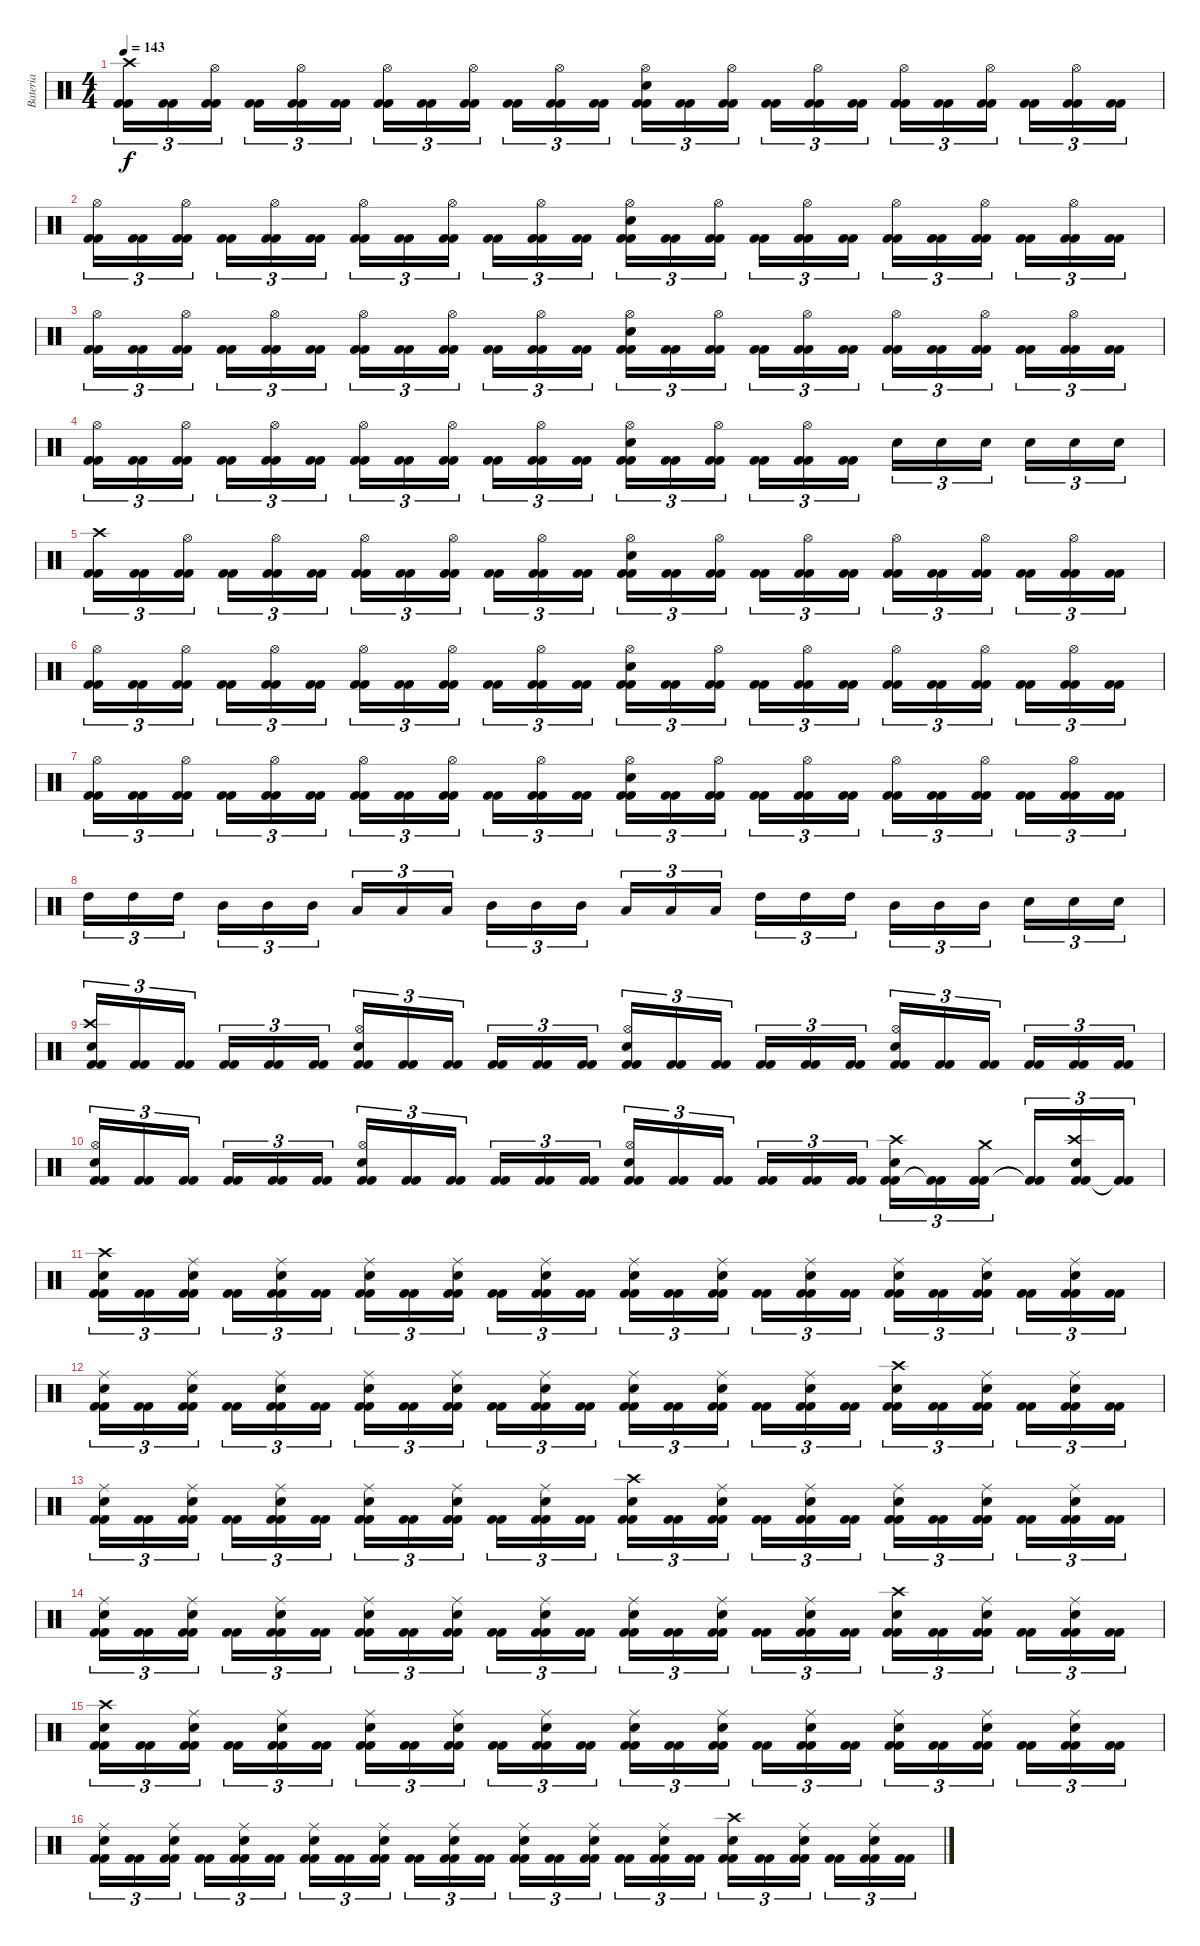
\track ("Bateria" "Bateria") {instrument percussion}
\staff {score}
\articulation defaults
\ts (4 4)
\tempo 143
\clef neutral
\ks c
("Kick (hit) 2" "Kick (hit) 2" "Crash high (hit)").16{tu (3 2) dy f} ("Kick (hit) 2" "Kick (hit) 2").16{tu (3 2)} ("Kick (hit) 2" "Kick (hit) 2" "Hi-Hat (open)").16{tu (3 2)} ("Kick (hit) 2" "Kick (hit) 2").16{tu (3 2)} ("Kick (hit) 2" "Kick (hit) 2" "Hi-Hat (open)").16{tu (3 2)} ("Kick (hit) 2" "Kick (hit) 2").16{tu (3 2)} ("Kick (hit) 2" "Kick (hit) 2" "Hi-Hat (open)").16{tu (3 2)} ("Kick (hit) 2" "Kick (hit) 2").16{tu (3 2)} ("Kick (hit) 2" "Kick (hit) 2" "Hi-Hat (open)").16{tu (3 2)} ("Kick (hit) 2" "Kick (hit) 2").16{tu (3 2)} ("Kick (hit) 2" "Kick (hit) 2" "Hi-Hat (open)").16{tu (3 2)} ("Kick (hit) 2" "Kick (hit) 2").16{tu (3 2)} ("Kick (hit) 2" "Kick (hit) 2" "Snare (hit) 2" "Hi-Hat (open)").16{tu (3 2)} ("Kick (hit) 2" "Kick (hit) 2").16{tu (3 2)} ("Kick (hit) 2" "Kick (hit) 2" "Hi-Hat (open)").16{tu (3 2)} ("Kick (hit) 2" "Kick (hit) 2").16{tu (3 2)} ("Kick (hit) 2" "Kick (hit) 2" "Hi-Hat (open)").16{tu (3 2)} ("Kick (hit) 2" "Kick (hit) 2").16{tu (3 2)} ("Kick (hit) 2" "Kick (hit) 2" "Hi-Hat (open)").16{tu (3 2)} ("Kick (hit) 2" "Kick (hit) 2").16{tu (3 2)} ("Kick (hit) 2" "Kick (hit) 2" "Hi-Hat (open)").16{tu (3 2)} ("Kick (hit) 2" "Kick (hit) 2").16{tu (3 2)} ("Kick (hit) 2" "Kick (hit) 2" "Hi-Hat (open)").16{tu (3 2)} ("Kick (hit) 2" "Kick (hit) 2").16{tu (3 2)} |
("Kick (hit) 2" "Kick (hit) 2" "Hi-Hat (open)").16{tu (3 2)} ("Kick (hit) 2" "Kick (hit) 2").16{tu (3 2)} ("Kick (hit) 2" "Kick (hit) 2" "Hi-Hat (open)").16{tu (3 2)} ("Kick (hit) 2" "Kick (hit) 2").16{tu (3 2)} ("Kick (hit) 2" "Kick (hit) 2" "Hi-Hat (open)").16{tu (3 2)} ("Kick (hit) 2" "Kick (hit) 2").16{tu (3 2)} ("Kick (hit) 2" "Kick (hit) 2" "Hi-Hat (open)").16{tu (3 2)} ("Kick (hit) 2" "Kick (hit) 2").16{tu (3 2)} ("Kick (hit) 2" "Kick (hit) 2" "Hi-Hat (open)").16{tu (3 2)} ("Kick (hit) 2" "Kick (hit) 2").16{tu (3 2)} ("Kick (hit) 2" "Kick (hit) 2" "Hi-Hat (open)").16{tu (3 2)} ("Kick (hit) 2" "Kick (hit) 2").16{tu (3 2)} ("Kick (hit) 2" "Kick (hit) 2" "Snare (hit) 2" "Hi-Hat (open)").16{tu (3 2)} ("Kick (hit) 2" "Kick (hit) 2").16{tu (3 2)} ("Kick (hit) 2" "Kick (hit) 2" "Hi-Hat (open)").16{tu (3 2)} ("Kick (hit) 2" "Kick (hit) 2").16{tu (3 2)} ("Kick (hit) 2" "Kick (hit) 2" "Hi-Hat (open)").16{tu (3 2)} ("Kick (hit) 2" "Kick (hit) 2").16{tu (3 2)} ("Kick (hit) 2" "Kick (hit) 2" "Hi-Hat (open)").16{tu (3 2)} ("Kick (hit) 2" "Kick (hit) 2").16{tu (3 2)} ("Kick (hit) 2" "Kick (hit) 2" "Hi-Hat (open)").16{tu (3 2)} ("Kick (hit) 2" "Kick (hit) 2").16{tu (3 2)} ("Kick (hit) 2" "Kick (hit) 2" "Hi-Hat (open)").16{tu (3 2)} ("Kick (hit) 2" "Kick (hit) 2").16{tu (3 2)} |
("Kick (hit) 2" "Kick (hit) 2" "Hi-Hat (open)").16{tu (3 2)} ("Kick (hit) 2" "Kick (hit) 2").16{tu (3 2)} ("Kick (hit) 2" "Kick (hit) 2" "Hi-Hat (open)").16{tu (3 2)} ("Kick (hit) 2" "Kick (hit) 2").16{tu (3 2)} ("Kick (hit) 2" "Kick (hit) 2" "Hi-Hat (open)").16{tu (3 2)} ("Kick (hit) 2" "Kick (hit) 2").16{tu (3 2)} ("Kick (hit) 2" "Kick (hit) 2" "Hi-Hat (open)").16{tu (3 2)} ("Kick (hit) 2" "Kick (hit) 2").16{tu (3 2)} ("Kick (hit) 2" "Kick (hit) 2" "Hi-Hat (open)").16{tu (3 2)} ("Kick (hit) 2" "Kick (hit) 2").16{tu (3 2)} ("Kick (hit) 2" "Kick (hit) 2" "Hi-Hat (open)").16{tu (3 2)} ("Kick (hit) 2" "Kick (hit) 2").16{tu (3 2)} ("Kick (hit) 2" "Kick (hit) 2" "Snare (hit) 2" "Hi-Hat (open)").16{tu (3 2)} ("Kick (hit) 2" "Kick (hit) 2").16{tu (3 2)} ("Kick (hit) 2" "Kick (hit) 2" "Hi-Hat (open)").16{tu (3 2)} ("Kick (hit) 2" "Kick (hit) 2").16{tu (3 2)} ("Kick (hit) 2" "Kick (hit) 2" "Hi-Hat (open)").16{tu (3 2)} ("Kick (hit) 2" "Kick (hit) 2").16{tu (3 2)} ("Kick (hit) 2" "Kick (hit) 2" "Hi-Hat (open)").16{tu (3 2)} ("Kick (hit) 2" "Kick (hit) 2").16{tu (3 2)} ("Kick (hit) 2" "Kick (hit) 2" "Hi-Hat (open)").16{tu (3 2)} ("Kick (hit) 2" "Kick (hit) 2").16{tu (3 2)} ("Kick (hit) 2" "Kick (hit) 2" "Hi-Hat (open)").16{tu (3 2)} ("Kick (hit) 2" "Kick (hit) 2").16{tu (3 2)} |
("Kick (hit) 2" "Kick (hit) 2" "Hi-Hat (open)").16{tu (3 2)} ("Kick (hit) 2" "Kick (hit) 2").16{tu (3 2)} ("Kick (hit) 2" "Kick (hit) 2" "Hi-Hat (open)").16{tu (3 2)} ("Kick (hit) 2" "Kick (hit) 2").16{tu (3 2)} ("Kick (hit) 2" "Kick (hit) 2" "Hi-Hat (open)").16{tu (3 2)} ("Kick (hit) 2" "Kick (hit) 2").16{tu (3 2)} ("Kick (hit) 2" "Kick (hit) 2" "Hi-Hat (open)").16{tu (3 2)} ("Kick (hit) 2" "Kick (hit) 2").16{tu (3 2)} ("Kick (hit) 2" "Kick (hit) 2" "Hi-Hat (open)").16{tu (3 2)} ("Kick (hit) 2" "Kick (hit) 2").16{tu (3 2)} ("Kick (hit) 2" "Kick (hit) 2" "Hi-Hat (open)").16{tu (3 2)} ("Kick (hit) 2" "Kick (hit) 2").16{tu (3 2)} ("Kick (hit) 2" "Kick (hit) 2" "Snare (hit) 2" "Hi-Hat (open)").16{tu (3 2)} ("Kick (hit) 2" "Kick (hit) 2").16{tu (3 2)} ("Kick (hit) 2" "Kick (hit) 2" "Hi-Hat (open)").16{tu (3 2)} ("Kick (hit) 2" "Kick (hit) 2").16{tu (3 2)} ("Kick (hit) 2" "Kick (hit) 2" "Hi-Hat (open)").16{tu (3 2)} ("Kick (hit) 2" "Kick (hit) 2").16{tu (3 2)} "Snare (hit) 2".16{tu (3 2)} "Snare (hit) 2".16{tu (3 2)} "Snare (hit) 2".16{tu (3 2)} "Snare (hit) 2".16{tu (3 2)} "Snare (hit) 2".16{tu (3 2)} "Snare (hit) 2".16{tu (3 2)} |
("Kick (hit) 2" "Kick (hit) 2" "Crash high (hit)").16{tu (3 2)} ("Kick (hit) 2" "Kick (hit) 2").16{tu (3 2)} ("Kick (hit) 2" "Kick (hit) 2" "Hi-Hat (open)").16{tu (3 2)} ("Kick (hit) 2" "Kick (hit) 2").16{tu (3 2)} ("Kick (hit) 2" "Kick (hit) 2" "Hi-Hat (open)").16{tu (3 2)} ("Kick (hit) 2" "Kick (hit) 2").16{tu (3 2)} ("Kick (hit) 2" "Kick (hit) 2" "Hi-Hat (open)").16{tu (3 2)} ("Kick (hit) 2" "Kick (hit) 2").16{tu (3 2)} ("Kick (hit) 2" "Kick (hit) 2" "Hi-Hat (open)").16{tu (3 2)} ("Kick (hit) 2" "Kick (hit) 2").16{tu (3 2)} ("Kick (hit) 2" "Kick (hit) 2" "Hi-Hat (open)").16{tu (3 2)} ("Kick (hit) 2" "Kick (hit) 2").16{tu (3 2)} ("Kick (hit) 2" "Kick (hit) 2" "Snare (hit) 2" "Hi-Hat (open)").16{tu (3 2)} ("Kick (hit) 2" "Kick (hit) 2").16{tu (3 2)} ("Kick (hit) 2" "Kick (hit) 2" "Hi-Hat (open)").16{tu (3 2)} ("Kick (hit) 2" "Kick (hit) 2").16{tu (3 2)} ("Kick (hit) 2" "Kick (hit) 2" "Hi-Hat (open)").16{tu (3 2)} ("Kick (hit) 2" "Kick (hit) 2").16{tu (3 2)} ("Kick (hit) 2" "Kick (hit) 2" "Hi-Hat (open)").16{tu (3 2)} ("Kick (hit) 2" "Kick (hit) 2").16{tu (3 2)} ("Kick (hit) 2" "Kick (hit) 2" "Hi-Hat (open)").16{tu (3 2)} ("Kick (hit) 2" "Kick (hit) 2").16{tu (3 2)} ("Kick (hit) 2" "Kick (hit) 2" "Hi-Hat (open)").16{tu (3 2)} ("Kick (hit) 2" "Kick (hit) 2").16{tu (3 2)} |
("Kick (hit) 2" "Kick (hit) 2" "Hi-Hat (open)").16{tu (3 2)} ("Kick (hit) 2" "Kick (hit) 2").16{tu (3 2)} ("Kick (hit) 2" "Kick (hit) 2" "Hi-Hat (open)").16{tu (3 2)} ("Kick (hit) 2" "Kick (hit) 2").16{tu (3 2)} ("Kick (hit) 2" "Kick (hit) 2" "Hi-Hat (open)").16{tu (3 2)} ("Kick (hit) 2" "Kick (hit) 2").16{tu (3 2)} ("Kick (hit) 2" "Kick (hit) 2" "Hi-Hat (open)").16{tu (3 2)} ("Kick (hit) 2" "Kick (hit) 2").16{tu (3 2)} ("Kick (hit) 2" "Kick (hit) 2" "Hi-Hat (open)").16{tu (3 2)} ("Kick (hit) 2" "Kick (hit) 2").16{tu (3 2)} ("Kick (hit) 2" "Kick (hit) 2" "Hi-Hat (open)").16{tu (3 2)} ("Kick (hit) 2" "Kick (hit) 2").16{tu (3 2)} ("Kick (hit) 2" "Kick (hit) 2" "Snare (hit) 2" "Hi-Hat (open)").16{tu (3 2)} ("Kick (hit) 2" "Kick (hit) 2").16{tu (3 2)} ("Kick (hit) 2" "Kick (hit) 2" "Hi-Hat (open)").16{tu (3 2)} ("Kick (hit) 2" "Kick (hit) 2").16{tu (3 2)} ("Kick (hit) 2" "Kick (hit) 2" "Hi-Hat (open)").16{tu (3 2)} ("Kick (hit) 2" "Kick (hit) 2").16{tu (3 2)} ("Kick (hit) 2" "Kick (hit) 2" "Hi-Hat (open)").16{tu (3 2)} ("Kick (hit) 2" "Kick (hit) 2").16{tu (3 2)} ("Kick (hit) 2" "Kick (hit) 2" "Hi-Hat (open)").16{tu (3 2)} ("Kick (hit) 2" "Kick (hit) 2").16{tu (3 2)} ("Kick (hit) 2" "Kick (hit) 2" "Hi-Hat (open)").16{tu (3 2)} ("Kick (hit) 2" "Kick (hit) 2").16{tu (3 2)} |
("Kick (hit) 2" "Kick (hit) 2" "Hi-Hat (open)").16{tu (3 2)} ("Kick (hit) 2" "Kick (hit) 2").16{tu (3 2)} ("Kick (hit) 2" "Kick (hit) 2" "Hi-Hat (open)").16{tu (3 2)} ("Kick (hit) 2" "Kick (hit) 2").16{tu (3 2)} ("Kick (hit) 2" "Kick (hit) 2" "Hi-Hat (open)").16{tu (3 2)} ("Kick (hit) 2" "Kick (hit) 2").16{tu (3 2)} ("Kick (hit) 2" "Kick (hit) 2" "Hi-Hat (open)").16{tu (3 2)} ("Kick (hit) 2" "Kick (hit) 2").16{tu (3 2)} ("Kick (hit) 2" "Kick (hit) 2" "Hi-Hat (open)").16{tu (3 2)} ("Kick (hit) 2" "Kick (hit) 2").16{tu (3 2)} ("Kick (hit) 2" "Kick (hit) 2" "Hi-Hat (open)").16{tu (3 2)} ("Kick (hit) 2" "Kick (hit) 2").16{tu (3 2)} ("Kick (hit) 2" "Kick (hit) 2" "Snare (hit) 2" "Hi-Hat (open)").16{tu (3 2)} ("Kick (hit) 2" "Kick (hit) 2").16{tu (3 2)} ("Kick (hit) 2" "Kick (hit) 2" "Hi-Hat (open)").16{tu (3 2)} ("Kick (hit) 2" "Kick (hit) 2").16{tu (3 2)} ("Kick (hit) 2" "Kick (hit) 2" "Hi-Hat (open)").16{tu (3 2)} ("Kick (hit) 2" "Kick (hit) 2").16{tu (3 2)} ("Kick (hit) 2" "Kick (hit) 2" "Hi-Hat (open)").16{tu (3 2)} ("Kick (hit) 2" "Kick (hit) 2").16{tu (3 2)} ("Kick (hit) 2" "Kick (hit) 2" "Hi-Hat (open)").16{tu (3 2)} ("Kick (hit) 2" "Kick (hit) 2").16{tu (3 2)} ("Kick (hit) 2" "Kick (hit) 2" "Hi-Hat (open)").16{tu (3 2)} ("Kick (hit) 2" "Kick (hit) 2").16{tu (3 2)} |
"High Tom (hit)".16{tu (3 2)} "High Tom (hit)".16{tu (3 2)} "High Tom (hit)".16{tu (3 2)} "Mid Tom (hit)".16{tu (3 2)} "Mid Tom (hit)".16{tu (3 2)} "Mid Tom (hit)".16{tu (3 2)} "Low Tom (hit)".16{tu (3 2)} "Low Tom (hit)".16{tu (3 2)} "Low Tom (hit)".16{tu (3 2)} "Mid Tom (hit)".16{tu (3 2)} "Mid Tom (hit)".16{tu (3 2)} "Mid Tom (hit)".16{tu (3 2)} "Low Tom (hit)".16{tu (3 2)} "Low Tom (hit)".16{tu (3 2)} "Low Tom (hit)".16{tu (3 2)} "High Tom (hit)".16{tu (3 2)} "High Tom (hit)".16{tu (3 2)} "High Tom (hit)".16{tu (3 2)} "Mid Tom (hit)".16{tu (3 2)} "Mid Tom (hit)".16{tu (3 2)} "Mid Tom (hit)".16{tu (3 2)} "Snare (hit) 2".16{tu (3 2)} "Snare (hit) 2".16{tu (3 2)} "Snare (hit) 2".16{tu (3 2)} |
("Kick (hit) 2" "Kick (hit) 2" "Snare (hit) 2" "Crash high (hit)").16{tu (3 2)} ("Kick (hit) 2" "Kick (hit) 2").16{tu (3 2)} ("Kick (hit) 2" "Kick (hit) 2").16{tu (3 2)} ("Kick (hit) 2" "Kick (hit) 2").16{tu (3 2)} ("Kick (hit) 2" "Kick (hit) 2").16{tu (3 2)} ("Kick (hit) 2" "Kick (hit) 2").16{tu (3 2)} ("Kick (hit) 2" "Kick (hit) 2" "Snare (hit) 2" "Hi-Hat (open)").16{tu (3 2)} ("Kick (hit) 2" "Kick (hit) 2").16{tu (3 2)} ("Kick (hit) 2" "Kick (hit) 2").16{tu (3 2)} ("Kick (hit) 2" "Kick (hit) 2").16{tu (3 2)} ("Kick (hit) 2" "Kick (hit) 2").16{tu (3 2)} ("Kick (hit) 2" "Kick (hit) 2").16{tu (3 2)} ("Kick (hit) 2" "Kick (hit) 2" "Snare (hit) 2" "Hi-Hat (open)").16{tu (3 2)} ("Kick (hit) 2" "Kick (hit) 2").16{tu (3 2)} ("Kick (hit) 2" "Kick (hit) 2").16{tu (3 2)} ("Kick (hit) 2" "Kick (hit) 2").16{tu (3 2)} ("Kick (hit) 2" "Kick (hit) 2").16{tu (3 2)} ("Kick (hit) 2" "Kick (hit) 2").16{tu (3 2)} ("Kick (hit) 2" "Kick (hit) 2" "Snare (hit) 2" "Hi-Hat (open)").16{tu (3 2)} ("Kick (hit) 2" "Kick (hit) 2").16{tu (3 2)} ("Kick (hit) 2" "Kick (hit) 2").16{tu (3 2)} ("Kick (hit) 2" "Kick (hit) 2").16{tu (3 2)} ("Kick (hit) 2" "Kick (hit) 2").16{tu (3 2)} ("Kick (hit) 2" "Kick (hit) 2").16{tu (3 2)} |
("Kick (hit) 2" "Kick (hit) 2" "Snare (hit) 2" "Hi-Hat (open)").16{tu (3 2)} ("Kick (hit) 2" "Kick (hit) 2").16{tu (3 2)} ("Kick (hit) 2" "Kick (hit) 2").16{tu (3 2)} ("Kick (hit) 2" "Kick (hit) 2").16{tu (3 2)} ("Kick (hit) 2" "Kick (hit) 2").16{tu (3 2)} ("Kick (hit) 2" "Kick (hit) 2").16{tu (3 2)} ("Kick (hit) 2" "Kick (hit) 2" "Snare (hit) 2" "Hi-Hat (open)").16{tu (3 2)} ("Kick (hit) 2" "Kick (hit) 2").16{tu (3 2)} ("Kick (hit) 2" "Kick (hit) 2").16{tu (3 2)} ("Kick (hit) 2" "Kick (hit) 2").16{tu (3 2)} ("Kick (hit) 2" "Kick (hit) 2").16{tu (3 2)} ("Kick (hit) 2" "Kick (hit) 2").16{tu (3 2)} ("Kick (hit) 2" "Kick (hit) 2" "Snare (hit) 2" "Hi-Hat (open)").16{tu (3 2)} ("Kick (hit) 2" "Kick (hit) 2").16{tu (3 2)} ("Kick (hit) 2" "Kick (hit) 2").16{tu (3 2)} ("Kick (hit) 2" "Kick (hit) 2").16{tu (3 2)} ("Kick (hit) 2" "Kick (hit) 2").16{tu (3 2)} ("Kick (hit) 2" "Kick (hit) 2").16{tu (3 2)} ("Kick (hit) 2" "Kick (hit) 2" "Snare (hit) 2" "Crash high (hit)").16{tu (3 2)} ("Kick (hit) 2"{t} "Kick (hit) 2"{t}).16{tu (3 2)} ("Kick (hit) 2" "Kick (hit) 2" "Crash medium (hit)").16{tu (3 2)} ("Kick (hit) 2"{t} "Kick (hit) 2"{t}).16{tu (3 2)} ("Kick (hit) 2" "Kick (hit) 2" "Snare (hit) 2" "Crash high (hit)").16{tu (3 2)} ("Kick (hit) 2"{t} "Kick (hit) 2"{t}).16{tu (3 2)} |
("Kick (hit) 2" "Kick (hit) 2" "Snare (hit) 2" "Crash high (hit)").16{tu (3 2)} ("Kick (hit) 2" "Kick (hit) 2").16{tu (3 2)} ("Kick (hit) 2" "Kick (hit) 2" "Snare (hit) 2" "Ride (middle)").16{tu (3 2)} ("Kick (hit) 2" "Kick (hit) 2").16{tu (3 2)} ("Kick (hit) 2" "Kick (hit) 2" "Snare (hit) 2" "Ride (middle)").16{tu (3 2)} ("Kick (hit) 2" "Kick (hit) 2").16{tu (3 2)} ("Kick (hit) 2" "Kick (hit) 2" "Snare (hit) 2" "Ride (middle)").16{tu (3 2)} ("Kick (hit) 2" "Kick (hit) 2").16{tu (3 2)} ("Kick (hit) 2" "Kick (hit) 2" "Snare (hit) 2" "Ride (middle)").16{tu (3 2)} ("Kick (hit) 2" "Kick (hit) 2").16{tu (3 2)} ("Kick (hit) 2" "Kick (hit) 2" "Snare (hit) 2" "Ride (middle)").16{tu (3 2)} ("Kick (hit) 2" "Kick (hit) 2").16{tu (3 2)} ("Kick (hit) 2" "Kick (hit) 2" "Snare (hit) 2" "Ride (middle)").16{tu (3 2)} ("Kick (hit) 2" "Kick (hit) 2").16{tu (3 2)} ("Kick (hit) 2" "Kick (hit) 2" "Snare (hit) 2" "Ride (middle)").16{tu (3 2)} ("Kick (hit) 2" "Kick (hit) 2").16{tu (3 2)} ("Kick (hit) 2" "Kick (hit) 2" "Snare (hit) 2" "Ride (middle)").16{tu (3 2)} ("Kick (hit) 2" "Kick (hit) 2").16{tu (3 2)} ("Kick (hit) 2" "Kick (hit) 2" "Snare (hit) 2" "Ride (middle)").16{tu (3 2)} ("Kick (hit) 2" "Kick (hit) 2").16{tu (3 2)} ("Kick (hit) 2" "Kick (hit) 2" "Snare (hit) 2" "Ride (middle)").16{tu (3 2)} ("Kick (hit) 2" "Kick (hit) 2").16{tu (3 2)} ("Kick (hit) 2" "Kick (hit) 2" "Snare (hit) 2" "Ride (middle)").16{tu (3 2)} ("Kick (hit) 2" "Kick (hit) 2").16{tu (3 2)} |
("Kick (hit) 2" "Kick (hit) 2" "Snare (hit) 2" "Ride (middle)").16{tu (3 2)} ("Kick (hit) 2" "Kick (hit) 2").16{tu (3 2)} ("Kick (hit) 2" "Kick (hit) 2" "Snare (hit) 2" "Ride (middle)").16{tu (3 2)} ("Kick (hit) 2" "Kick (hit) 2").16{tu (3 2)} ("Kick (hit) 2" "Kick (hit) 2" "Snare (hit) 2" "Ride (middle)").16{tu (3 2)} ("Kick (hit) 2" "Kick (hit) 2").16{tu (3 2)} ("Kick (hit) 2" "Kick (hit) 2" "Snare (hit) 2" "Ride (middle)").16{tu (3 2)} ("Kick (hit) 2" "Kick (hit) 2").16{tu (3 2)} ("Kick (hit) 2" "Kick (hit) 2" "Snare (hit) 2" "Ride (middle)").16{tu (3 2)} ("Kick (hit) 2" "Kick (hit) 2").16{tu (3 2)} ("Kick (hit) 2" "Kick (hit) 2" "Snare (hit) 2" "Ride (middle)").16{tu (3 2)} ("Kick (hit) 2" "Kick (hit) 2").16{tu (3 2)} ("Kick (hit) 2" "Kick (hit) 2" "Snare (hit) 2" "Ride (middle)").16{tu (3 2)} ("Kick (hit) 2" "Kick (hit) 2").16{tu (3 2)} ("Kick (hit) 2" "Kick (hit) 2" "Snare (hit) 2" "Ride (middle)").16{tu (3 2)} ("Kick (hit) 2" "Kick (hit) 2").16{tu (3 2)} ("Kick (hit) 2" "Kick (hit) 2" "Snare (hit) 2" "Ride (middle)").16{tu (3 2)} ("Kick (hit) 2" "Kick (hit) 2").16{tu (3 2)} ("Kick (hit) 2" "Kick (hit) 2" "Snare (hit) 2" "Crash high (hit)").16{tu (3 2)} ("Kick (hit) 2" "Kick (hit) 2").16{tu (3 2)} ("Kick (hit) 2" "Kick (hit) 2" "Snare (hit) 2" "Ride (middle)").16{tu (3 2)} ("Kick (hit) 2" "Kick (hit) 2").16{tu (3 2)} ("Kick (hit) 2" "Kick (hit) 2" "Snare (hit) 2" "Ride (middle)").16{tu (3 2)} ("Kick (hit) 2" "Kick (hit) 2").16{tu (3 2)} |
("Kick (hit) 2" "Kick (hit) 2" "Snare (hit) 2" "Ride (middle)").16{tu (3 2)} ("Kick (hit) 2" "Kick (hit) 2").16{tu (3 2)} ("Kick (hit) 2" "Kick (hit) 2" "Snare (hit) 2" "Ride (middle)").16{tu (3 2)} ("Kick (hit) 2" "Kick (hit) 2").16{tu (3 2)} ("Kick (hit) 2" "Kick (hit) 2" "Snare (hit) 2" "Ride (middle)").16{tu (3 2)} ("Kick (hit) 2" "Kick (hit) 2").16{tu (3 2)} ("Kick (hit) 2" "Kick (hit) 2" "Snare (hit) 2" "Ride (middle)").16{tu (3 2)} ("Kick (hit) 2" "Kick (hit) 2").16{tu (3 2)} ("Kick (hit) 2" "Kick (hit) 2" "Snare (hit) 2" "Ride (middle)").16{tu (3 2)} ("Kick (hit) 2" "Kick (hit) 2").16{tu (3 2)} ("Kick (hit) 2" "Kick (hit) 2" "Snare (hit) 2" "Ride (middle)").16{tu (3 2)} ("Kick (hit) 2" "Kick (hit) 2").16{tu (3 2)} ("Kick (hit) 2" "Kick (hit) 2" "Snare (hit) 2" "Crash high (hit)").16{tu (3 2)} ("Kick (hit) 2" "Kick (hit) 2").16{tu (3 2)} ("Kick (hit) 2" "Kick (hit) 2" "Snare (hit) 2" "Ride (middle)").16{tu (3 2)} ("Kick (hit) 2" "Kick (hit) 2").16{tu (3 2)} ("Kick (hit) 2" "Kick (hit) 2" "Snare (hit) 2" "Ride (middle)").16{tu (3 2)} ("Kick (hit) 2" "Kick (hit) 2").16{tu (3 2)} ("Kick (hit) 2" "Kick (hit) 2" "Snare (hit) 2" "Ride (middle)").16{tu (3 2)} ("Kick (hit) 2" "Kick (hit) 2").16{tu (3 2)} ("Kick (hit) 2" "Kick (hit) 2" "Snare (hit) 2" "Ride (middle)").16{tu (3 2)} ("Kick (hit) 2" "Kick (hit) 2").16{tu (3 2)} ("Kick (hit) 2" "Kick (hit) 2" "Snare (hit) 2" "Ride (middle)").16{tu (3 2)} ("Kick (hit) 2" "Kick (hit) 2").16{tu (3 2)} |
("Kick (hit) 2" "Kick (hit) 2" "Snare (hit) 2" "Ride (middle)").16{tu (3 2)} ("Kick (hit) 2" "Kick (hit) 2").16{tu (3 2)} ("Kick (hit) 2" "Kick (hit) 2" "Snare (hit) 2" "Ride (middle)").16{tu (3 2)} ("Kick (hit) 2" "Kick (hit) 2").16{tu (3 2)} ("Kick (hit) 2" "Kick (hit) 2" "Snare (hit) 2" "Ride (middle)").16{tu (3 2)} ("Kick (hit) 2" "Kick (hit) 2").16{tu (3 2)} ("Kick (hit) 2" "Kick (hit) 2" "Snare (hit) 2" "Ride (middle)").16{tu (3 2)} ("Kick (hit) 2" "Kick (hit) 2").16{tu (3 2)} ("Kick (hit) 2" "Kick (hit) 2" "Snare (hit) 2" "Ride (middle)").16{tu (3 2)} ("Kick (hit) 2" "Kick (hit) 2").16{tu (3 2)} ("Kick (hit) 2" "Kick (hit) 2" "Snare (hit) 2" "Ride (middle)").16{tu (3 2)} ("Kick (hit) 2" "Kick (hit) 2").16{tu (3 2)} ("Kick (hit) 2" "Kick (hit) 2" "Snare (hit) 2" "Ride (middle)").16{tu (3 2)} ("Kick (hit) 2" "Kick (hit) 2").16{tu (3 2)} ("Kick (hit) 2" "Kick (hit) 2" "Snare (hit) 2" "Ride (middle)").16{tu (3 2)} ("Kick (hit) 2" "Kick (hit) 2").16{tu (3 2)} ("Kick (hit) 2" "Kick (hit) 2" "Snare (hit) 2" "Ride (middle)").16{tu (3 2)} ("Kick (hit) 2" "Kick (hit) 2").16{tu (3 2)} ("Kick (hit) 2" "Kick (hit) 2" "Snare (hit) 2" "Crash high (hit)").16{tu (3 2)} ("Kick (hit) 2" "Kick (hit) 2").16{tu (3 2)} ("Kick (hit) 2" "Kick (hit) 2" "Snare (hit) 2" "Ride (middle)").16{tu (3 2)} ("Kick (hit) 2" "Kick (hit) 2").16{tu (3 2)} ("Kick (hit) 2" "Kick (hit) 2" "Snare (hit) 2" "Ride (middle)").16{tu (3 2)} ("Kick (hit) 2" "Kick (hit) 2").16{tu (3 2)} |
("Kick (hit) 2" "Kick (hit) 2" "Snare (hit) 2" "Crash high (hit)").16{tu (3 2)} ("Kick (hit) 2" "Kick (hit) 2").16{tu (3 2)} ("Kick (hit) 2" "Kick (hit) 2" "Snare (hit) 2" "Ride (middle)").16{tu (3 2)} ("Kick (hit) 2" "Kick (hit) 2").16{tu (3 2)} ("Kick (hit) 2" "Kick (hit) 2" "Snare (hit) 2" "Ride (middle)").16{tu (3 2)} ("Kick (hit) 2" "Kick (hit) 2").16{tu (3 2)} ("Kick (hit) 2" "Kick (hit) 2" "Snare (hit) 2" "Ride (middle)").16{tu (3 2)} ("Kick (hit) 2" "Kick (hit) 2").16{tu (3 2)} ("Kick (hit) 2" "Kick (hit) 2" "Snare (hit) 2" "Ride (middle)").16{tu (3 2)} ("Kick (hit) 2" "Kick (hit) 2").16{tu (3 2)} ("Kick (hit) 2" "Kick (hit) 2" "Snare (hit) 2" "Ride (middle)").16{tu (3 2)} ("Kick (hit) 2" "Kick (hit) 2").16{tu (3 2)} ("Kick (hit) 2" "Kick (hit) 2" "Snare (hit) 2" "Ride (middle)").16{tu (3 2)} ("Kick (hit) 2" "Kick (hit) 2").16{tu (3 2)} ("Kick (hit) 2" "Kick (hit) 2" "Snare (hit) 2" "Ride (middle)").16{tu (3 2)} ("Kick (hit) 2" "Kick (hit) 2").16{tu (3 2)} ("Kick (hit) 2" "Kick (hit) 2" "Snare (hit) 2" "Ride (middle)").16{tu (3 2)} ("Kick (hit) 2" "Kick (hit) 2").16{tu (3 2)} ("Kick (hit) 2" "Kick (hit) 2" "Snare (hit) 2" "Ride (middle)").16{tu (3 2)} ("Kick (hit) 2" "Kick (hit) 2").16{tu (3 2)} ("Kick (hit) 2" "Kick (hit) 2" "Snare (hit) 2" "Ride (middle)").16{tu (3 2)} ("Kick (hit) 2" "Kick (hit) 2").16{tu (3 2)} ("Kick (hit) 2" "Kick (hit) 2" "Snare (hit) 2" "Ride (middle)").16{tu (3 2)} ("Kick (hit) 2" "Kick (hit) 2").16{tu (3 2)} |
("Kick (hit) 2" "Kick (hit) 2" "Snare (hit) 2" "Ride (middle)").16{tu (3 2)} ("Kick (hit) 2" "Kick (hit) 2").16{tu (3 2)} ("Kick (hit) 2" "Kick (hit) 2" "Snare (hit) 2" "Ride (middle)").16{tu (3 2)} ("Kick (hit) 2" "Kick (hit) 2").16{tu (3 2)} ("Kick (hit) 2" "Kick (hit) 2" "Snare (hit) 2" "Ride (middle)").16{tu (3 2)} ("Kick (hit) 2" "Kick (hit) 2").16{tu (3 2)} ("Kick (hit) 2" "Kick (hit) 2" "Snare (hit) 2" "Ride (middle)").16{tu (3 2)} ("Kick (hit) 2" "Kick (hit) 2").16{tu (3 2)} ("Kick (hit) 2" "Kick (hit) 2" "Snare (hit) 2" "Ride (middle)").16{tu (3 2)} ("Kick (hit) 2" "Kick (hit) 2").16{tu (3 2)} ("Kick (hit) 2" "Kick (hit) 2" "Snare (hit) 2" "Ride (middle)").16{tu (3 2)} ("Kick (hit) 2" "Kick (hit) 2").16{tu (3 2)} ("Kick (hit) 2" "Kick (hit) 2" "Snare (hit) 2" "Ride (middle)").16{tu (3 2)} ("Kick (hit) 2" "Kick (hit) 2").16{tu (3 2)} ("Kick (hit) 2" "Kick (hit) 2" "Snare (hit) 2" "Ride (middle)").16{tu (3 2)} ("Kick (hit) 2" "Kick (hit) 2").16{tu (3 2)} ("Kick (hit) 2" "Kick (hit) 2" "Snare (hit) 2" "Ride (middle)").16{tu (3 2)} ("Kick (hit) 2" "Kick (hit) 2").16{tu (3 2)} ("Kick (hit) 2" "Kick (hit) 2" "Snare (hit) 2" "Crash high (hit)").16{tu (3 2)} ("Kick (hit) 2" "Kick (hit) 2").16{tu (3 2)} ("Kick (hit) 2" "Kick (hit) 2" "Snare (hit) 2" "Ride (middle)").16{tu (3 2)} ("Kick (hit) 2" "Kick (hit) 2").16{tu (3 2)} ("Kick (hit) 2" "Kick (hit) 2" "Snare (hit) 2" "Ride (middle)").16{tu (3 2)} ("Kick (hit) 2" "Kick (hit) 2").16{tu (3 2)}
